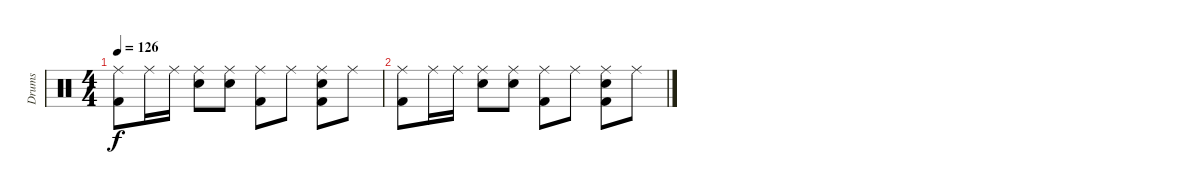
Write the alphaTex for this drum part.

\track ("Drums" "Drums") {instrument percussion}
\staff {score}
\articulation defaults
\ts (4 4)
\tempo 126
\clef neutral
\ks c
("Ride (middle)" "Kick (hit) 2").8{dy f} "Ride (middle)".16 "Ride (middle)".16 ("Ride (middle)" "Snare (hit) 2").8 ("Ride (middle)" "Snare (hit) 2").8 ("Ride (middle)" "Kick (hit) 2").8 "Ride (middle)".8 ("Ride (middle)" "Snare (hit) 2" "Kick (hit) 2").8 "Ride (middle)".8 |
("Ride (middle)" "Kick (hit) 2").8 "Ride (middle)".16 "Ride (middle)".16 ("Ride (middle)" "Snare (hit) 2").8 ("Ride (middle)" "Snare (hit) 2").8 ("Ride (middle)" "Kick (hit) 2").8 "Ride (middle)".8 ("Ride (middle)" "Snare (hit) 2" "Kick (hit) 2").8 "Ride (middle)".8
